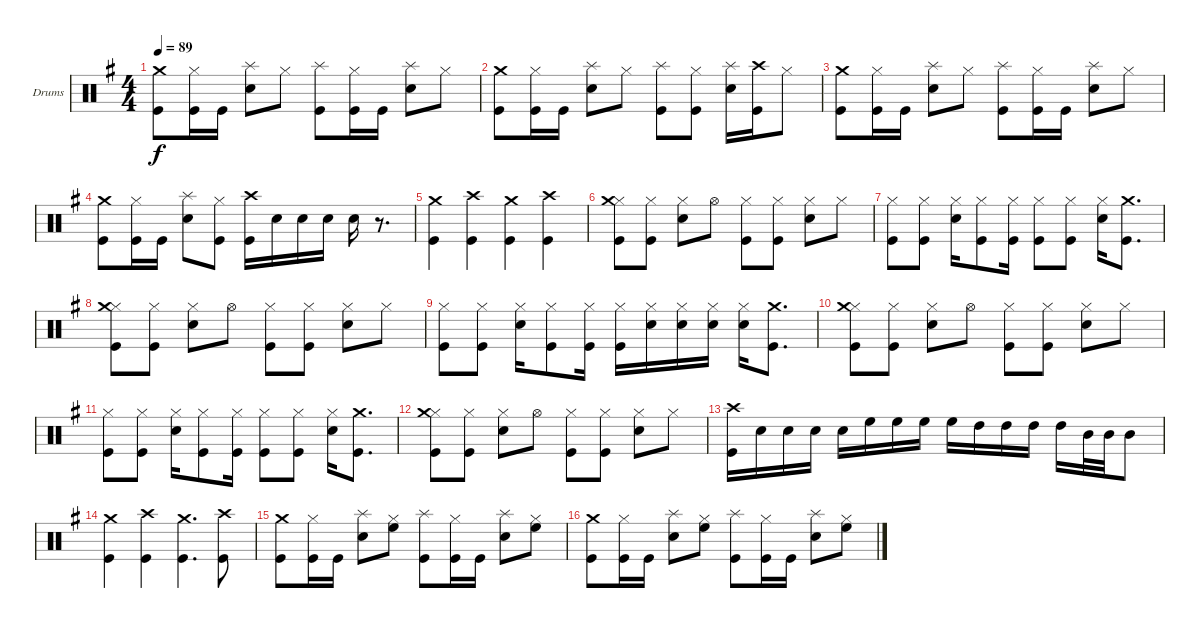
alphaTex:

\bracketExtendMode groupsimilarinstruments
\firstSystemTrackNameOrientation horizontal
\otherSystemsTrackNameOrientation horizontal
\track ("Drumkit" "Drums") {instrument percussion}
\staff {score}
\articulation defaults
\ts (4 4)
\tempo 89
\clef neutral
\scale
0.5
\ks eminor
("Kick (hit)" "Crash medium (hit)").8{dy f} ("Kick (hit)" "Hi-Hat (closed)").16 "Kick (hit)".16 ("Snare (hit) 2" "Splash (hit)").8 "Hi-Hat (closed)".8 ("Kick (hit)" "Splash (hit)").8 ("Kick (hit)" "Hi-Hat (closed)").16 "Kick (hit)".16 ("Snare (hit) 2" "Splash (hit)").8 "Hi-Hat (closed)".8 |
\scale
0.5 ("Kick (hit)" "Crash medium (hit)").8 ("Kick (hit)" "Hi-Hat (closed)").16 "Kick (hit)".16 ("Snare (hit) 2" "Splash (hit)").8 "Hi-Hat (closed)".8 ("Kick (hit)" "Splash (hit)").8 ("Kick (hit)" "Hi-Hat (closed)").8 ("Snare (hit) 2" "Splash (hit)").16 ("Kick (hit)" "Crash high (hit)").16 "Hi-Hat (closed)".8 |
\scale
0.488665 ("Kick (hit)" "Crash medium (hit)").8 ("Kick (hit)" "Hi-Hat (closed)").16 "Kick (hit)".16 ("Snare (hit) 2" "Splash (hit)").8 "Hi-Hat (closed)".8 ("Kick (hit)" "Splash (hit)").8 ("Kick (hit)" "Hi-Hat (closed)").16 "Kick (hit)".16 ("Snare (hit) 2" "Splash (hit)").8 "Hi-Hat (closed)".8 |
\scale
0.511335 ("Kick (hit)" "Crash medium (hit)").8 ("Kick (hit)" "Hi-Hat (closed)").16 "Kick (hit)".16 ("Snare (hit) 2" "Splash (hit)").8 ("Kick (hit)" "Hi-Hat (closed)").8 ("Kick (hit)" "Crash high (hit)").16 "Snare (hit) 2".16 "Snare (hit) 2".16 "Snare (hit) 2".16 "Snare (hit) 2".16 r.8{d} |
\scale
0.40678 ("Kick (hit)" "Crash medium (hit)").4 ("Kick (hit)" "Crash high (hit)").4 ("Kick (hit)" "Crash medium (hit)").4 ("Kick (hit)" "Crash high (hit)").4 |
\scale
0.59322 ("Kick (hit)" "Hi-Hat (closed)" "Crash medium (hit)").8 ("Kick (hit)" "Hi-Hat (closed)").8 ("Snare (hit) 2" "Hi-Hat (closed)").8 "Hi-Hat (open)".8 ("Kick (hit)" "Hi-Hat (closed)").8 ("Kick (hit)" "Hi-Hat (closed)").8 ("Snare (hit) 2" "Hi-Hat (closed)").8 "Hi-Hat (closed)".8 |
\scale
0.513889 ("Kick (hit)" "Hi-Hat (closed)").8 ("Kick (hit)" "Hi-Hat (closed)").8 ("Snare (hit) 2" "Hi-Hat (closed)").16 ("Kick (hit)" "Hi-Hat (closed)").8 ("Kick (hit)" "Hi-Hat (closed)").16 ("Kick (hit)" "Hi-Hat (closed)").8 ("Kick (hit)" "Hi-Hat (closed)").8 ("Snare (hit) 2" "Hi-Hat (closed)").16 ("Kick (hit)" "Crash medium (hit)").8{d} |
\scale
0.486111 ("Kick (hit)" "Hi-Hat (closed)" "Crash medium (hit)").8 ("Kick (hit)" "Hi-Hat (closed)").8 ("Snare (hit) 2" "Hi-Hat (closed)").8 "Hi-Hat (open)".8 ("Kick (hit)" "Hi-Hat (closed)").8 ("Kick (hit)" "Hi-Hat (closed)").8 ("Snare (hit) 2" "Hi-Hat (closed)").8 "Hi-Hat (closed)".8 |
\scale
0.537037 ("Kick (hit)" "Hi-Hat (closed)").8 ("Kick (hit)" "Hi-Hat (closed)").8 ("Snare (hit) 2" "Hi-Hat (closed)").16 ("Kick (hit)" "Hi-Hat (closed)").8 ("Kick (hit)" "Hi-Hat (closed)").16 ("Kick (hit)" "Hi-Hat (closed)").16 ("Snare (hit) 2" "Hi-Hat (closed)").16 ("Snare (hit) 2" "Hi-Hat (closed)").16 ("Snare (hit) 2" "Hi-Hat (closed)").16 ("Snare (hit) 2" "Hi-Hat (closed)").16 ("Kick (hit)" "Crash medium (hit)").8{d} |
\scale
0.462963 ("Kick (hit)" "Hi-Hat (closed)" "Crash medium (hit)").8 ("Kick (hit)" "Hi-Hat (closed)").8 ("Snare (hit) 2" "Hi-Hat (closed)").8 "Hi-Hat (open)".8 ("Kick (hit)" "Hi-Hat (closed)").8 ("Kick (hit)" "Hi-Hat (closed)").8 ("Snare (hit) 2" "Hi-Hat (closed)").8 "Hi-Hat (closed)".8 |
\scale
0.513889 ("Kick (hit)" "Hi-Hat (closed)").8 ("Kick (hit)" "Hi-Hat (closed)").8 ("Snare (hit) 2" "Hi-Hat (closed)").16 ("Kick (hit)" "Hi-Hat (closed)").8 ("Kick (hit)" "Hi-Hat (closed)").16 ("Kick (hit)" "Hi-Hat (closed)").8 ("Kick (hit)" "Hi-Hat (closed)").8 ("Snare (hit) 2" "Hi-Hat (closed)").16 ("Kick (hit)" "Crash medium (hit)").8{d} |
\scale
0.486111 ("Kick (hit)" "Hi-Hat (closed)" "Crash medium (hit)").8 ("Kick (hit)" "Hi-Hat (closed)").8 ("Snare (hit) 2" "Hi-Hat (closed)").8 "Hi-Hat (open)".8 ("Kick (hit)" "Hi-Hat (closed)").8 ("Kick (hit)" "Hi-Hat (closed)").8 ("Snare (hit) 2" "Hi-Hat (closed)").8 "Hi-Hat (closed)".8 |
\scale
0.688482 ("Kick (hit)" "Crash high (hit)").16 "Snare (hit) 2".16 "Snare (hit) 2".16 "Snare (hit) 2".16 "Snare (hit) 2".16 "High Floor Tom (hit)".16 "High Floor Tom (hit)".16 "High Floor Tom (hit)".16 "High Floor Tom (hit)".16 "High Tom (hit)".16 "High Tom (hit)".16 "High Tom (hit)".16 "High Tom (hit)".16 "Mid Tom (hit)".32 "Mid Tom (hit)".32 "Mid Tom (hit)".8 |
\scale
0.311518 ("Kick (hit)" "Crash medium (hit)").4 ("Kick (hit)" "Crash high (hit)").4 ("Kick (hit)" "Crash medium (hit)").4{d} ("Kick (hit)" "Crash high (hit)").8 |
\scale
0.5 ("Kick (hit)" "Crash medium (hit)").8 ("Kick (hit)" "Hi-Hat (closed)").16 "Kick (hit)".16 ("Snare (hit) 2" "Splash (hit)").8 ("Hi-Hat (closed)" "High Floor Tom (hit)").8 ("Kick (hit)" "Splash (hit)").8 ("Kick (hit)" "Hi-Hat (closed)").16 "Kick (hit)".16 ("Snare (hit) 2" "Splash (hit)").8 ("Hi-Hat (closed)" "High Floor Tom (hit)").8 |
\scale
0.5 ("Kick (hit)" "Crash medium (hit)").8 ("Kick (hit)" "Hi-Hat (closed)").16 "Kick (hit)".16 ("Snare (hit) 2" "Splash (hit)").8 ("Hi-Hat (closed)" "High Floor Tom (hit)").8 ("Kick (hit)" "Splash (hit)").8 ("Kick (hit)" "Hi-Hat (closed)").16 "Kick (hit)".16 ("Snare (hit) 2" "Splash (hit)").8 ("Hi-Hat (closed)" "High Floor Tom (hit)").8
